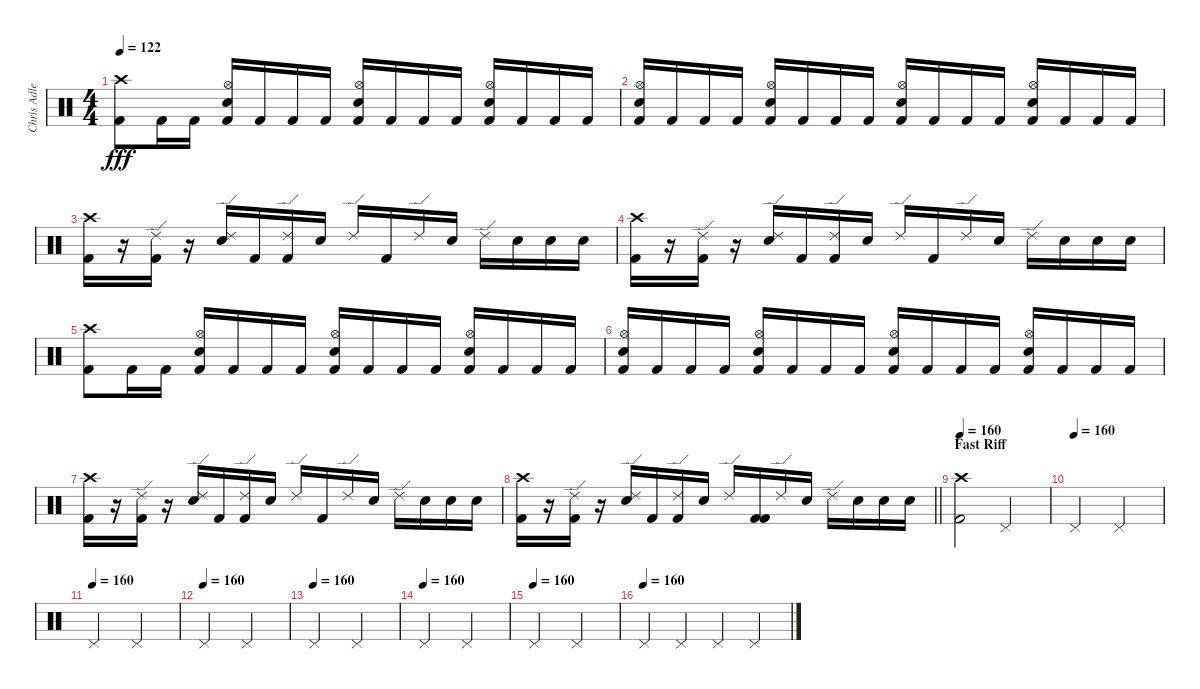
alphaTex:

\track ("Chris Adler" "Chris Adle") {instrument percussion}
\staff {score}
\articulation defaults
\ts (4 4)
\tempo 122
\clef neutral
\ks c
("Crash high (hit)" "Kick (hit) 2").8{dy fff} "Kick (hit) 2".16 "Kick (hit) 2".16 ("Hi-Hat (open)" "Snare (hit) 2" "Kick (hit) 2").16 "Kick (hit) 2".16 "Kick (hit) 2".16 "Kick (hit) 2".16 ("Hi-Hat (open)" "Snare (hit) 2" "Kick (hit) 2").16 "Kick (hit) 2".16 "Kick (hit) 2".16 "Kick (hit) 2".16 ("Hi-Hat (open)" "Snare (hit) 2" "Kick (hit) 2").16 "Kick (hit) 2".16 "Kick (hit) 2".16 "Kick (hit) 2".16 |
("Hi-Hat (open)" "Snare (hit) 2" "Kick (hit) 2").16 "Kick (hit) 2".16 "Kick (hit) 2".16 "Kick (hit) 2".16 ("Hi-Hat (open)" "Snare (hit) 2" "Kick (hit) 2").16 "Kick (hit) 2".16 "Kick (hit) 2".16 "Kick (hit) 2".16 ("Hi-Hat (open)" "Snare (hit) 2" "Kick (hit) 2").16 "Kick (hit) 2".16 "Kick (hit) 2".16 "Kick (hit) 2".16 ("Hi-Hat (open)" "Snare (hit) 2" "Kick (hit) 2").16 "Kick (hit) 2".16 "Kick (hit) 2".16 "Kick (hit) 2".16 |
("Crash high (hit)" "Kick (hit) 2").16 r.16 ("Ride (edge) 2" "Kick (hit) 2").16 r.16 ("Ride (edge) 2" "Snare (hit) 2").16 "Kick (hit) 2".16 ("Ride (edge) 2" "Kick (hit) 2").16 "Snare (hit) 2".16 "Ride (edge) 2".16 "Kick (hit) 2".16 "Ride (edge) 2".16 "Snare (hit) 2".16 "Ride (edge) 2".16 "Snare (hit) 2".16 "Snare (hit) 2".16 "Snare (hit) 2".16 |
("Crash high (hit)" "Kick (hit) 2").16 r.16 ("Ride (edge) 2" "Kick (hit) 2").16 r.16 ("Ride (edge) 2" "Snare (hit) 2").16 "Kick (hit) 2".16 ("Ride (edge) 2" "Kick (hit) 2").16 "Snare (hit) 2".16 "Ride (edge) 2".16 "Kick (hit) 2".16 "Ride (edge) 2".16 "Snare (hit) 2".16 "Ride (edge) 2".16 "Snare (hit) 2".16 "Snare (hit) 2".16 "Snare (hit) 2".16 |
("Crash high (hit)" "Kick (hit) 2").8 "Kick (hit) 2".16 "Kick (hit) 2".16 ("Hi-Hat (open)" "Snare (hit) 2" "Kick (hit) 2").16 "Kick (hit) 2".16 "Kick (hit) 2".16 "Kick (hit) 2".16 ("Hi-Hat (open)" "Snare (hit) 2" "Kick (hit) 2").16 "Kick (hit) 2".16 "Kick (hit) 2".16 "Kick (hit) 2".16 ("Hi-Hat (open)" "Snare (hit) 2" "Kick (hit) 2").16 "Kick (hit) 2".16 "Kick (hit) 2".16 "Kick (hit) 2".16 |
("Hi-Hat (open)" "Snare (hit) 2" "Kick (hit) 2").16 "Kick (hit) 2".16 "Kick (hit) 2".16 "Kick (hit) 2".16 ("Hi-Hat (open)" "Snare (hit) 2" "Kick (hit) 2").16 "Kick (hit) 2".16 "Kick (hit) 2".16 "Kick (hit) 2".16 ("Hi-Hat (open)" "Snare (hit) 2" "Kick (hit) 2").16 "Kick (hit) 2".16 "Kick (hit) 2".16 "Kick (hit) 2".16 ("Hi-Hat (open)" "Snare (hit) 2" "Kick (hit) 2").16 "Kick (hit) 2".16 "Kick (hit) 2".16 "Kick (hit) 2".16 |
("Crash high (hit)" "Kick (hit) 2").16 r.16 ("Ride (edge) 2" "Kick (hit) 2").16 r.16 ("Ride (edge) 2" "Snare (hit) 2").16 "Kick (hit) 2".16 ("Ride (edge) 2" "Kick (hit) 2").16 "Snare (hit) 2".16 "Ride (edge) 2".16 "Kick (hit) 2".16 "Ride (edge) 2".16 "Snare (hit) 2".16 "Ride (edge) 2".16 "Snare (hit) 2".16 "Snare (hit) 2".16 "Snare (hit) 2".16 |
\barLineRight lightlight
("Crash high (hit)" "Kick (hit) 2").16 r.16 ("Ride (edge) 2" "Kick (hit) 2").16 r.16 ("Ride (edge) 2" "Snare (hit) 2").16 "Kick (hit) 2".16 ("Ride (edge) 2" "Kick (hit) 2").16 "Snare (hit) 2".16 "Ride (edge) 2".16 ("Kick (hit) 2" "Kick (hit) 2").16 "Ride (edge) 2".16 "Snare (hit) 2".16 "Ride (edge) 2".16 "Snare (hit) 2".16 "Snare (hit) 2".16 "Snare (hit) 2".16 |
\section ("" "Fast Riff")
\tempo 160
("Crash high (hit)" "Kick (hit) 2").2 "Pedal Hi-Hat (hit)".2 |
\tempo (160)
"Pedal Hi-Hat (hit)".2 "Pedal Hi-Hat (hit)".2 |
\tempo (160)
"Pedal Hi-Hat (hit)".2 "Pedal Hi-Hat (hit)".2 |
\tempo (160)
"Pedal Hi-Hat (hit)".2 "Pedal Hi-Hat (hit)".2 |
\tempo (160)
"Pedal Hi-Hat (hit)".2 "Pedal Hi-Hat (hit)".2 |
\tempo (160)
"Pedal Hi-Hat (hit)".2 "Pedal Hi-Hat (hit)".2 |
\tempo (160)
"Pedal Hi-Hat (hit)".2 "Pedal Hi-Hat (hit)".2 |
\tempo (160)
"Pedal Hi-Hat (hit)".4 "Pedal Hi-Hat (hit)".4 "Pedal Hi-Hat (hit)".4 "Pedal Hi-Hat (hit)".4
